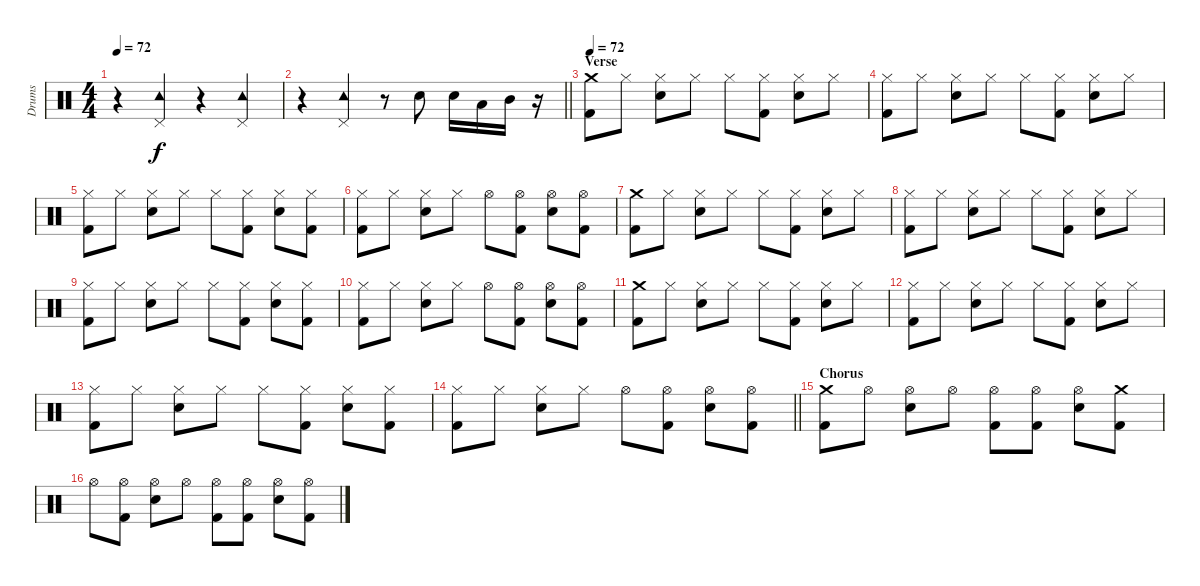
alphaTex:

\track ("Drums" "Drums") {instrument percussion}
\staff {score}
\articulation defaults
\ts (4 4)
\tempo 72
\clef neutral
\ks c
r.4{dy f} ("Pedal Hi-Hat (hit)" "Tambourine (hit)").4 r.4 ("Pedal Hi-Hat (hit)" "Tambourine (hit)").4 |
\barLineRight lightlight
r.4 ("Pedal Hi-Hat (hit)" "Tambourine (hit)").4 r.8 "Snare (hit) 2".8 "Snare (hit) 2".16 "Low Tom (hit)".16 "Mid Tom (hit)".16 r.16 |
\section ("" "Verse")
\tempo 70
\tempo 72
("Crash medium (hit)" "Kick (hit) 2").8 "Hi-Hat (closed)".8 ("Hi-Hat (closed)" "Snare (hit) 2").8 "Hi-Hat (closed)".8 "Hi-Hat (closed)".8 ("Hi-Hat (closed)" "Kick (hit) 2").8 ("Hi-Hat (closed)" "Snare (hit) 2").8 "Hi-Hat (closed)".8 |
("Hi-Hat (closed)" "Kick (hit) 2").8 "Hi-Hat (closed)".8 ("Hi-Hat (closed)" "Snare (hit) 2").8 "Hi-Hat (closed)".8 "Hi-Hat (closed)".8 ("Hi-Hat (closed)" "Kick (hit) 2").8 ("Hi-Hat (closed)" "Snare (hit) 2").8 "Hi-Hat (closed)".8 |
("Hi-Hat (closed)" "Kick (hit) 2").8 "Hi-Hat (closed)".8 ("Hi-Hat (closed)" "Snare (hit) 2").8 "Hi-Hat (closed)".8 "Hi-Hat (closed)".8 ("Hi-Hat (closed)" "Kick (hit) 2").8 ("Hi-Hat (closed)" "Snare (hit) 2").8 ("Hi-Hat (closed)" "Kick (hit) 2").8 |
("Hi-Hat (closed)" "Kick (hit) 2").8 "Hi-Hat (closed)".8 ("Hi-Hat (closed)" "Snare (hit) 2").8 "Hi-Hat (closed)".8 "Hi-Hat (open)".8 ("Hi-Hat (open)" "Kick (hit) 2").8 ("Hi-Hat (open)" "Snare (hit) 2").8 ("Hi-Hat (open)" "Kick (hit) 2").8 |
("Crash medium (hit)" "Kick (hit) 2").8 "Hi-Hat (closed)".8 ("Hi-Hat (closed)" "Snare (hit) 2").8 "Hi-Hat (closed)".8 "Hi-Hat (closed)".8 ("Hi-Hat (closed)" "Kick (hit) 2").8 ("Hi-Hat (closed)" "Snare (hit) 2").8 "Hi-Hat (closed)".8 |
("Hi-Hat (closed)" "Kick (hit) 2").8 "Hi-Hat (closed)".8 ("Hi-Hat (closed)" "Snare (hit) 2").8 "Hi-Hat (closed)".8 "Hi-Hat (closed)".8 ("Hi-Hat (closed)" "Kick (hit) 2").8 ("Hi-Hat (closed)" "Snare (hit) 2").8 "Hi-Hat (closed)".8 |
("Hi-Hat (closed)" "Kick (hit) 2").8 "Hi-Hat (closed)".8 ("Hi-Hat (closed)" "Snare (hit) 2").8 "Hi-Hat (closed)".8 "Hi-Hat (closed)".8 ("Hi-Hat (closed)" "Kick (hit) 2").8 ("Hi-Hat (closed)" "Snare (hit) 2").8 ("Hi-Hat (closed)" "Kick (hit) 2").8 |
("Hi-Hat (closed)" "Kick (hit) 2").8 "Hi-Hat (closed)".8 ("Hi-Hat (closed)" "Snare (hit) 2").8 "Hi-Hat (closed)".8 "Hi-Hat (open)".8 ("Hi-Hat (open)" "Kick (hit) 2").8 ("Hi-Hat (open)" "Snare (hit) 2").8 ("Hi-Hat (open)" "Kick (hit) 2").8 |
("Crash medium (hit)" "Kick (hit) 2").8 "Hi-Hat (closed)".8 ("Hi-Hat (closed)" "Snare (hit) 2").8 "Hi-Hat (closed)".8 "Hi-Hat (closed)".8 ("Hi-Hat (closed)" "Kick (hit) 2").8 ("Hi-Hat (closed)" "Snare (hit) 2").8 "Hi-Hat (closed)".8 |
("Hi-Hat (closed)" "Kick (hit) 2").8 "Hi-Hat (closed)".8 ("Hi-Hat (closed)" "Snare (hit) 2").8 "Hi-Hat (closed)".8 "Hi-Hat (closed)".8 ("Hi-Hat (closed)" "Kick (hit) 2").8 ("Hi-Hat (closed)" "Snare (hit) 2").8 "Hi-Hat (closed)".8 |
("Hi-Hat (closed)" "Kick (hit) 2").8 "Hi-Hat (closed)".8 ("Hi-Hat (closed)" "Snare (hit) 2").8 "Hi-Hat (closed)".8 "Hi-Hat (closed)".8 ("Hi-Hat (closed)" "Kick (hit) 2").8 ("Hi-Hat (closed)" "Snare (hit) 2").8 ("Hi-Hat (closed)" "Kick (hit) 2").8 |
\barLineRight lightlight
("Hi-Hat (closed)" "Kick (hit) 2").8 "Hi-Hat (closed)".8 ("Hi-Hat (closed)" "Snare (hit) 2").8 "Hi-Hat (closed)".8 "Hi-Hat (open)".8 ("Hi-Hat (open)" "Kick (hit) 2").8 ("Hi-Hat (open)" "Snare (hit) 2").8 ("Hi-Hat (open)" "Kick (hit) 2").8 |
\section ("" "Chorus")
("Crash medium (hit)" "Kick (hit) 2").8 "Hi-Hat (open)".8 ("Hi-Hat (open)" "Snare (hit) 2").8 "Hi-Hat (open)".8 ("Hi-Hat (open)" "Kick (hit) 2").8 ("Hi-Hat (open)" "Kick (hit) 2").8 ("Hi-Hat (open)" "Snare (hit) 2").8 ("Crash medium (hit)" "Kick (hit) 2").8 |
"Hi-Hat (open)".8 ("Hi-Hat (open)" "Kick (hit) 2").8 ("Hi-Hat (open)" "Snare (hit) 2").8 "Hi-Hat (open)".8 ("Hi-Hat (open)" "Kick (hit) 2").8 ("Hi-Hat (open)" "Kick (hit) 2").8 ("Hi-Hat (open)" "Snare (hit) 2").8 ("Hi-Hat (open)" "Kick (hit) 2").8
